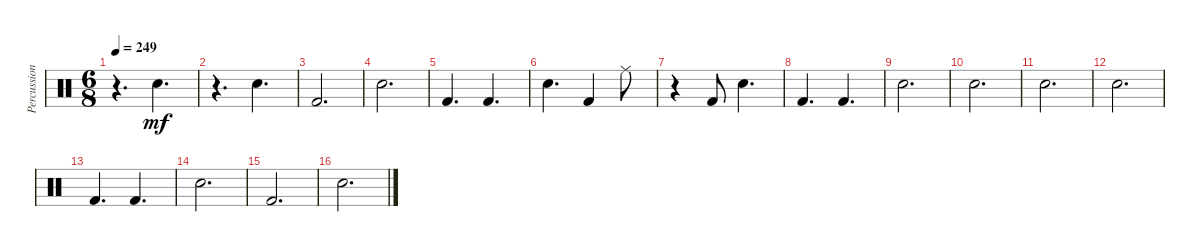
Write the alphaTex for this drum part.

\track ("Percussion" "Percussion") {instrument percussion}
\staff {score}
\articulation defaults
\ts (6 8)
\tempo 249
\clef neutral
\ks c
r.4{d dy mf} "Snare (hit) 2".4{d} |
r.4{d} "Snare (hit) 2".4{d} |
"Kick (hit) 2".2{d} |
"Snare (hit) 2".2{d} |
"Kick (hit) 2".4{d} "Kick (hit) 2".4{d} |
"Snare (hit) 2".4{d} "Kick (hit) 2".4 "Ride (middle)".8 |
r.4 "Kick (hit) 2".8 "Snare (hit) 2".4{d} |
"Kick (hit) 2".4{d} "Kick (hit) 2".4{d} |
"Snare (hit) 2".2{d} |
"Snare (hit) 2".2{d} |
"Snare (hit) 2".2{d} |
"Snare (hit) 2".2{d} |
"Kick (hit) 2".4{d} "Kick (hit) 2".4{d} |
"Snare (hit) 2".2{d} |
"Kick (hit) 2".2{d} |
"Snare (hit) 2".2{d}
